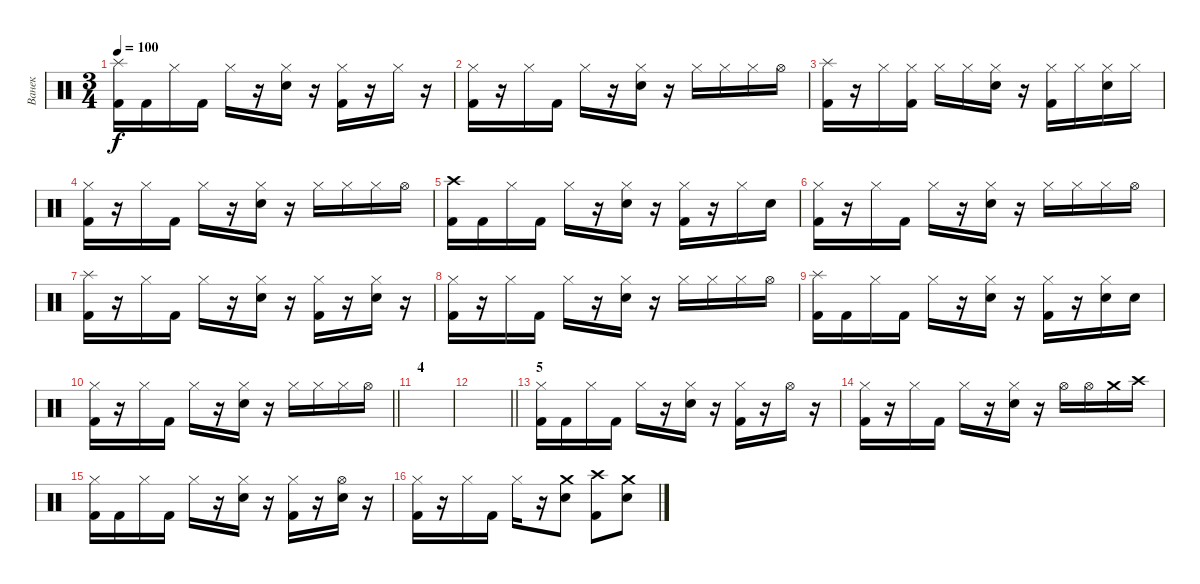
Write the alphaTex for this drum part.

\track ("Ванек" "Ванек") {instrument percussion}
\staff {score}
\articulation defaults
\ts (3 4)
\tempo 100
\clef neutral
\ks c
("Splash (hit)" "Kick (hit) 2").16{dy f} "Kick (hit) 2".16 "Hi-Hat (closed)".16 "Kick (hit) 2".16 "Hi-Hat (closed)".16 r.16 ("Hi-Hat (closed)" "Snare (hit) 2").16 r.16 ("Hi-Hat (closed)" "Kick (hit) 2").16 r.16 "Hi-Hat (closed)".16 r.16 |
("Hi-Hat (closed)" "Kick (hit) 2").16 r.16 "Hi-Hat (closed)".16 "Kick (hit) 2".16 "Hi-Hat (closed)".16 r.16 ("Hi-Hat (closed)" "Snare (hit) 2").16 r.16 "Hi-Hat (closed)".16 "Hi-Hat (closed)".16 "Hi-Hat (closed)".16 "Hi-Hat (open)".16 |
("Splash (hit)" "Kick (hit) 2").16 r.16 "Hi-Hat (closed)".16 ("Hi-Hat (closed)" "Kick (hit) 2").16 "Hi-Hat (closed)".16 "Hi-Hat (closed)".16 ("Hi-Hat (closed)" "Snare (hit) 2").16 r.16 ("Hi-Hat (closed)" "Kick (hit) 2").16 "Hi-Hat (closed)".16 ("Hi-Hat (closed)" "Snare (hit) 2").16 "Hi-Hat (closed)".16 |
("Hi-Hat (closed)" "Kick (hit) 2").16 r.16 "Hi-Hat (closed)".16 "Kick (hit) 2".16 "Hi-Hat (closed)".16 r.16 ("Hi-Hat (closed)" "Snare (hit) 2").16 r.16 "Hi-Hat (closed)".16 "Hi-Hat (closed)".16 "Hi-Hat (closed)".16 "Hi-Hat (open)".16 |
("Crash high (hit)" "Kick (hit) 2").16 "Kick (hit) 2".16 "Hi-Hat (closed)".16 "Kick (hit) 2".16 "Hi-Hat (closed)".16 r.16 ("Hi-Hat (closed)" "Snare (hit) 2").16 r.16 ("Hi-Hat (closed)" "Kick (hit) 2").16 r.16 "Hi-Hat (closed)".16 "Snare (hit) 2".16 |
("Hi-Hat (closed)" "Kick (hit) 2").16 r.16 "Hi-Hat (closed)".16 "Kick (hit) 2".16 "Hi-Hat (closed)".16 r.16 ("Hi-Hat (closed)" "Snare (hit) 2").16 r.16 "Hi-Hat (closed)".16 "Hi-Hat (closed)".16 "Hi-Hat (closed)".16 "Hi-Hat (open)".16 |
("Splash (hit)" "Kick (hit) 2").16 r.16 "Hi-Hat (closed)".16 "Kick (hit) 2".16 "Hi-Hat (closed)".16 r.16 ("Hi-Hat (closed)" "Snare (hit) 2").16 r.16 ("Hi-Hat (closed)" "Kick (hit) 2").16 r.16 ("Hi-Hat (closed)" "Snare (hit) 2").16 r.16 |
("Hi-Hat (closed)" "Kick (hit) 2").16 r.16 "Hi-Hat (closed)".16 "Kick (hit) 2".16 "Hi-Hat (closed)".16 r.16 ("Hi-Hat (closed)" "Snare (hit) 2").16 r.16 "Hi-Hat (closed)".16 "Hi-Hat (closed)".16 "Hi-Hat (closed)".16 "Hi-Hat (open)".16 |
("Splash (hit)" "Kick (hit) 2").16 "Kick (hit) 2".16 "Hi-Hat (closed)".16 "Kick (hit) 2".16 "Hi-Hat (closed)".16 r.16 ("Hi-Hat (closed)" "Snare (hit) 2").16 r.16 ("Hi-Hat (closed)" "Kick (hit) 2").16 r.16 ("Hi-Hat (closed)" "Snare (hit) 2").16 "Snare (hit) 2".16 |
\barLineRight lightlight
("Hi-Hat (closed)" "Kick (hit) 2").16 r.16 "Hi-Hat (closed)".16 "Kick (hit) 2".16 "Hi-Hat (closed)".16 r.16 ("Hi-Hat (closed)" "Snare (hit) 2").16 r.16 "Hi-Hat (closed)".16 "Hi-Hat (closed)".16 "Hi-Hat (closed)".16 "Hi-Hat (open)".16 |
\section ("" "4")
|
\barLineRight lightlight
|
\section ("" "5")
("Hi-Hat (closed)" "Kick (hit) 2").16 "Kick (hit) 2".16 "Hi-Hat (closed)".16 "Kick (hit) 2".16 "Hi-Hat (closed)".16 r.16 ("Hi-Hat (closed)" "Snare (hit) 2").16 r.16 ("Hi-Hat (closed)" "Kick (hit) 2").16 r.16 "Hi-Hat (open)".16 r.16 |
("Hi-Hat (closed)" "Kick (hit) 2").16 r.16 "Hi-Hat (closed)".16 "Kick (hit) 2".16 "Hi-Hat (closed)".16 r.16 ("Hi-Hat (closed)" "Snare (hit) 2").16 r.16 "Hi-Hat (open)".16 "Hi-Hat (open)".16 "Crash medium (hit)".16 "Crash high (hit)".16 |
("Hi-Hat (closed)" "Kick (hit) 2").16 "Kick (hit) 2".16 "Hi-Hat (closed)".16 "Kick (hit) 2".16 "Hi-Hat (closed)".16 r.16 ("Hi-Hat (closed)" "Snare (hit) 2").16 r.16 ("Hi-Hat (closed)" "Kick (hit) 2").16 r.16 ("Hi-Hat (open)" "Snare (hit) 2").16 r.16 |
("Hi-Hat (closed)" "Kick (hit) 2").16 r.16 "Hi-Hat (closed)".16 "Kick (hit) 2".16 "Hi-Hat (closed)".16 r.16 ("Crash medium (hit)" "Snare (hit) 2").8 ("Crash high (hit)" "Kick (hit) 2").8 ("Crash medium (hit)" "Snare (hit) 2").8
